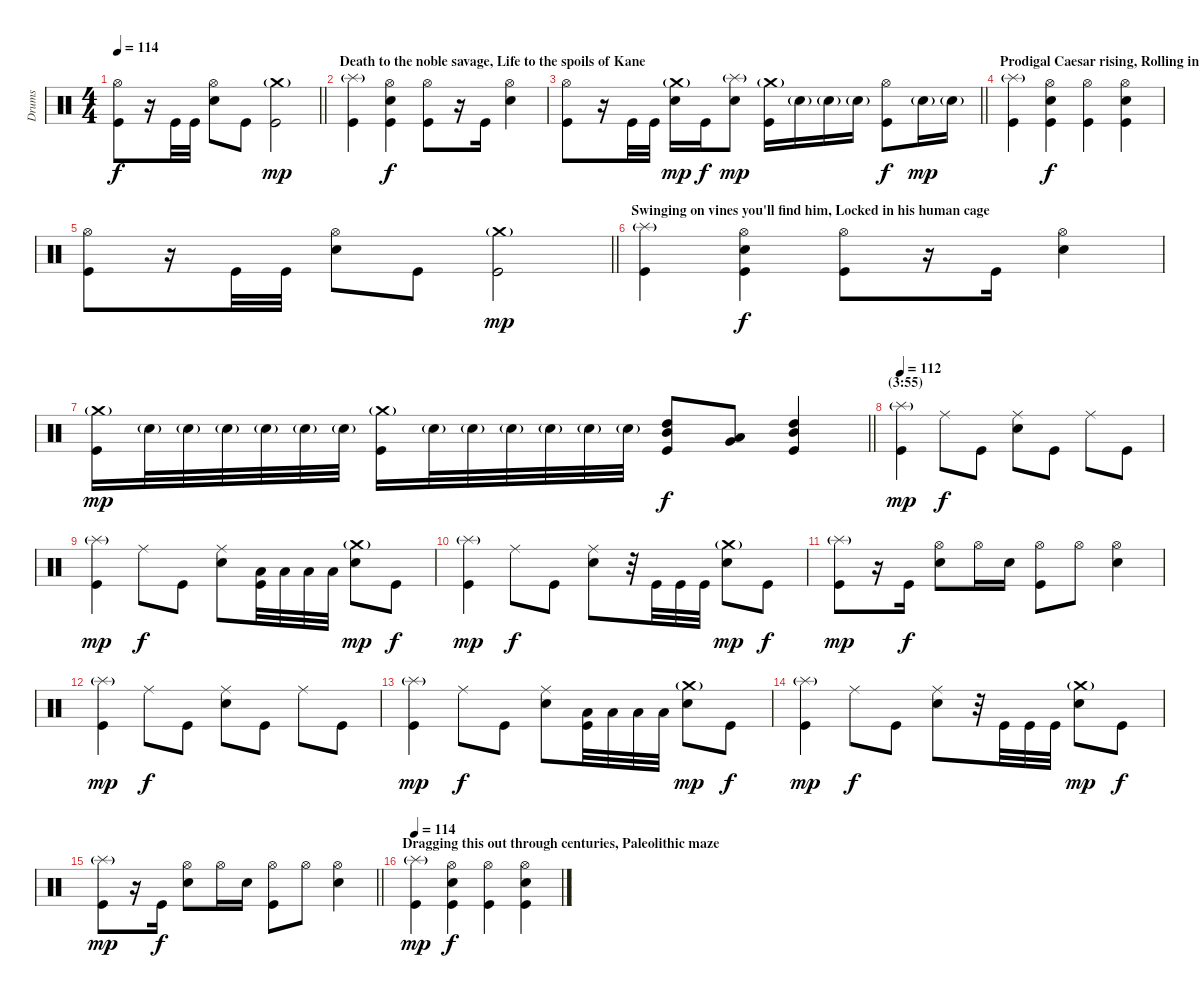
\track ("Drums" "Drums") {instrument percussion}
\staff {score}
\articulation defaults
\ts (4 4)
\tempo 114
\clef neutral
\barLineRight lightlight
\ks c
("Hi-Hat (open)" "Kick (hit)").8{dy f} r.16 "Kick (hit)".32 "Kick (hit)".32 ("Hi-Hat (open)" "Snare (hit) 2").8 "Kick (hit)".8 ("Crash medium (hit)"{g} "Kick (hit)").2{dy mp} |
\section ("" "Death to the noble savage, Life to the spoils of Kane ")
("Splash (hit)"{g} "Kick (hit)").4 ("Hi-Hat (open)" "Snare (hit) 2" "Kick (hit)").4{dy f} ("Hi-Hat (open)" "Kick (hit)").8 r.16 "Kick (hit)".16 ("Hi-Hat (open)" "Snare (hit) 2").4 |
\barLineRight lightlight
("Hi-Hat (open)" "Kick (hit)").8 r.16 "Kick (hit)".32 "Kick (hit)".32 ("Crash medium (hit)"{g} "Snare (hit) 2").16{dy mp} "Kick (hit)".16{dy f} ("Splash (hit)"{g} "Snare (hit) 2").8{dy mp} ("Crash medium (hit)"{g} "Kick (hit)").16 "Snare (hit) 2"{g}.16 "Snare (hit) 2"{g}.16 "Snare (hit) 2"{g}.16 ("Hi-Hat (open)" "Kick (hit)").8{dy f} "Snare (hit) 2"{g}.16{dy mp} "Snare (hit) 2"{g}.16 |
\section ("" "Prodigal Caesar rising, Rolling in leaves of rage ")
("Splash (hit)"{g} "Kick (hit)").4 ("Hi-Hat (open)" "Snare (hit) 2" "Kick (hit)").4{dy f} ("Hi-Hat (open)" "Kick (hit)").4 ("Hi-Hat (open)" "Snare (hit) 2" "Kick (hit)").4 |
\barLineRight lightlight
("Hi-Hat (open)" "Kick (hit)").8 r.16 "Kick (hit)".32 "Kick (hit)".32 ("Hi-Hat (open)" "Snare (hit) 2").8 "Kick (hit)".8 ("Crash medium (hit)"{g} "Kick (hit)").2{dy mp} |
\section ("" "Swinging on vines you'll find him, Locked in his human cage ")
("Splash (hit)"{g} "Kick (hit)").4 ("Hi-Hat (open)" "Snare (hit) 2" "Kick (hit)").4{dy f} ("Hi-Hat (open)" "Kick (hit)").8 r.16 "Kick (hit)".16 ("Hi-Hat (open)" "Snare (hit) 2").4 |
\barLineRight lightlight
("Crash medium (hit)"{g} "Kick (hit)").16{dy mp} "Snare (hit) 2"{g}.32 "Snare (hit) 2"{g}.32 "Snare (hit) 2"{g}.32 "Snare (hit) 2"{g}.32 "Snare (hit) 2"{g}.32 "Snare (hit) 2"{g}.32 ("Crash medium (hit)"{g} "Kick (hit)").16 "Snare (hit) 2"{g}.32 "Snare (hit) 2"{g}.32 "Snare (hit) 2"{g}.32 "Snare (hit) 2"{g}.32 "Snare (hit) 2"{g}.32 "Snare (hit) 2"{g}.32 ("High Tom (hit)" "Mid Tom (hit)" "Kick (hit)").8{dy f} ("Low Tom (hit)" "Very Low Tom (hit)").8 ("High Tom (hit)" "Mid Tom (hit)" "Kick (hit)").4 |
\section ("" "(3:55)")
\tempo 112
("Splash (hit)"{g} "Kick (hit)").4{dy mp} "Ride (middle)".8{dy f} "Kick (hit)".8 ("Ride (middle)" "Snare (hit) 2").8 "Kick (hit)".8 "Ride (middle)".8 "Kick (hit)".8 |
("Splash (hit)"{g} "Kick (hit)").4{dy mp} "Ride (middle)".8{dy f} "Kick (hit)".8 ("Ride (middle)" "Snare (hit) 2").8 ("Low Tom (hit)" "Kick (hit)").32 "Low Tom (hit)".32 "Low Tom (hit)".32 "Low Tom (hit)".32 ("Crash medium (hit)"{g} "Snare (hit) 2").8{dy mp} "Kick (hit)".8{dy f} |
("Splash (hit)"{g} "Kick (hit)").4{dy mp} "Ride (middle)".8{dy f} "Kick (hit)".8 ("Ride (middle)" "Snare (hit) 2").8 r.32 "Kick (hit)".32 "Kick (hit)".32 "Kick (hit)".32 ("Crash medium (hit)"{g} "Snare (hit) 2").8{dy mp} "Kick (hit)".8{dy f} |
("Splash (hit)"{g} "Kick (hit)").8{dy mp} r.16 "Kick (hit)".16{dy f} ("Hi-Hat (open)" "Snare (hit) 2").8 "Hi-Hat (open)".16 "Snare (hit) 2".16 ("Hi-Hat (open)" "Kick (hit)").8 "Hi-Hat (open)".8 ("Hi-Hat (open)" "Snare (hit) 2").4 |
("Splash (hit)"{g} "Kick (hit)").4{dy mp} "Ride (middle)".8{dy f} "Kick (hit)".8 ("Ride (middle)" "Snare (hit) 2").8 "Kick (hit)".8 "Ride (middle)".8 "Kick (hit)".8 |
("Splash (hit)"{g} "Kick (hit)").4{dy mp} "Ride (middle)".8{dy f} "Kick (hit)".8 ("Ride (middle)" "Snare (hit) 2").8 ("Low Tom (hit)" "Kick (hit)").32 "Low Tom (hit)".32 "Low Tom (hit)".32 "Low Tom (hit)".32 ("Crash medium (hit)"{g} "Snare (hit) 2").8{dy mp} "Kick (hit)".8{dy f} |
("Splash (hit)"{g} "Kick (hit)").4{dy mp} "Ride (middle)".8{dy f} "Kick (hit)".8 ("Ride (middle)" "Snare (hit) 2").8 r.32 "Kick (hit)".32 "Kick (hit)".32 "Kick (hit)".32 ("Crash medium (hit)"{g} "Snare (hit) 2").8{dy mp} "Kick (hit)".8{dy f} |
\barLineRight lightlight
("Splash (hit)"{g} "Kick (hit)").8{dy mp} r.16 "Kick (hit)".16{dy f} ("Hi-Hat (open)" "Snare (hit) 2").8 "Hi-Hat (open)".16 "Snare (hit) 2".16 ("Hi-Hat (open)" "Kick (hit)").8 "Hi-Hat (open)".8 ("Hi-Hat (open)" "Snare (hit) 2").4 |
\section ("" "Dragging this out through centuries, Paleolithic maze ")
\tempo 114
("Splash (hit)"{g} "Kick (hit)").4{dy mp} ("Hi-Hat (open)" "Snare (hit) 2" "Kick (hit)").4{dy f} ("Hi-Hat (open)" "Kick (hit)").4 ("Hi-Hat (open)" "Snare (hit) 2" "Kick (hit)").4
